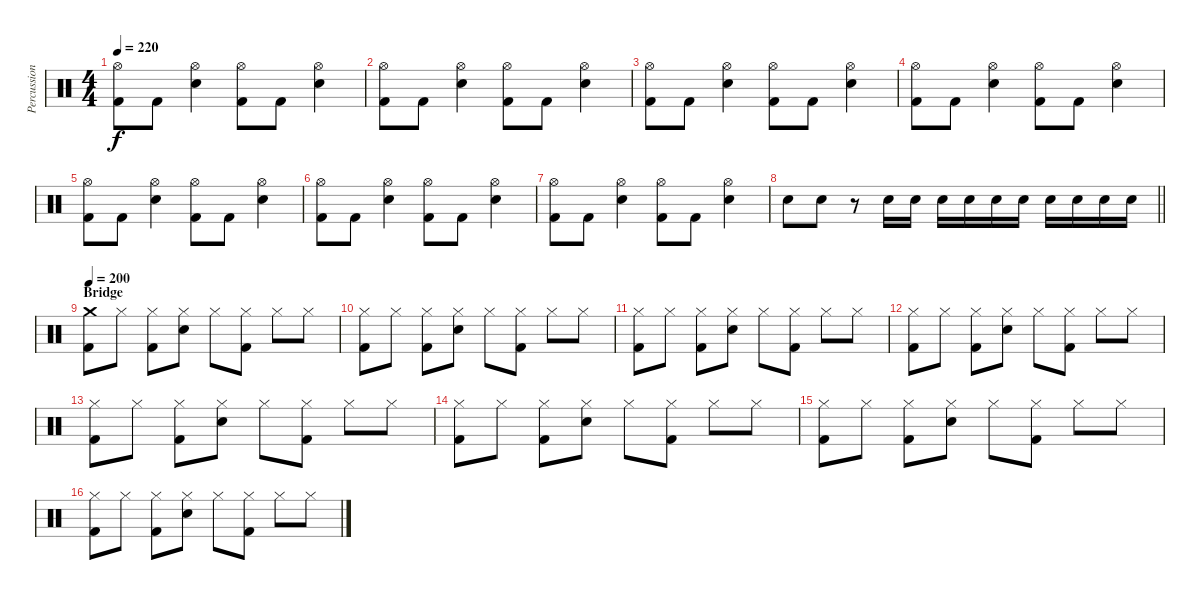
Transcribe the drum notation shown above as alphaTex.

\track ("Percussion" "Percussion") {instrument percussion}
\staff {score}
\articulation defaults
\ts (4 4)
\tempo 220
\clef neutral
\ks c
("Hi-Hat (open)" "Kick (hit) 2").8{dy f} "Kick (hit) 2".8 ("Hi-Hat (open)" "Snare (hit) 2").4 ("Hi-Hat (open)" "Kick (hit) 2").8 "Kick (hit) 2".8 ("Hi-Hat (open)" "Snare (hit) 2").4 |
("Hi-Hat (open)" "Kick (hit) 2").8 "Kick (hit) 2".8 ("Hi-Hat (open)" "Snare (hit) 2").4 ("Hi-Hat (open)" "Kick (hit) 2").8 "Kick (hit) 2".8 ("Hi-Hat (open)" "Snare (hit) 2").4 |
("Hi-Hat (open)" "Kick (hit) 2").8 "Kick (hit) 2".8 ("Hi-Hat (open)" "Snare (hit) 2").4 ("Hi-Hat (open)" "Kick (hit) 2").8 "Kick (hit) 2".8 ("Hi-Hat (open)" "Snare (hit) 2").4 |
("Hi-Hat (open)" "Kick (hit) 2").8 "Kick (hit) 2".8 ("Hi-Hat (open)" "Snare (hit) 2").4 ("Hi-Hat (open)" "Kick (hit) 2").8 "Kick (hit) 2".8 ("Hi-Hat (open)" "Snare (hit) 2").4 |
("Hi-Hat (open)" "Kick (hit) 2").8 "Kick (hit) 2".8 ("Hi-Hat (open)" "Snare (hit) 2").4 ("Hi-Hat (open)" "Kick (hit) 2").8 "Kick (hit) 2".8 ("Hi-Hat (open)" "Snare (hit) 2").4 |
("Hi-Hat (open)" "Kick (hit) 2").8 "Kick (hit) 2".8 ("Hi-Hat (open)" "Snare (hit) 2").4 ("Hi-Hat (open)" "Kick (hit) 2").8 "Kick (hit) 2".8 ("Hi-Hat (open)" "Snare (hit) 2").4 |
("Hi-Hat (open)" "Kick (hit) 2").8 "Kick (hit) 2".8 ("Hi-Hat (open)" "Snare (hit) 2").4 ("Hi-Hat (open)" "Kick (hit) 2").8 "Kick (hit) 2".8 ("Hi-Hat (open)" "Snare (hit) 2").4 |
\barLineRight lightlight "Snare (hit) 2".8 "Snare (hit) 2".8
r.8 "Snare (hit) 2".16 "Snare (hit) 2".16 "Snare (hit) 2".16 "Snare (hit) 2".16 "Snare (hit) 2".16 "Snare (hit) 2".16 "Snare (hit) 2".16 "Snare (hit) 2".16 "Snare (hit) 2".16 "Snare (hit) 2".16 |
\section ("" "Bridge")
\tempo 200
("Crash medium (hit)" "Kick (hit) 2").8 "Hi-Hat (closed)".8 ("Hi-Hat (closed)" "Kick (hit) 2").8 ("Hi-Hat (closed)" "Snare (hit) 2").8 "Hi-Hat (closed)".8 ("Hi-Hat (closed)" "Kick (hit) 2").8 "Hi-Hat (closed)".8 "Hi-Hat (closed)".8 |
("Hi-Hat (closed)" "Kick (hit) 2").8 "Hi-Hat (closed)".8 ("Hi-Hat (closed)" "Kick (hit) 2").8 ("Hi-Hat (closed)" "Snare (hit) 2").8 "Hi-Hat (closed)".8 ("Hi-Hat (closed)" "Kick (hit) 2").8 "Hi-Hat (closed)".8 "Hi-Hat (closed)".8 |
("Hi-Hat (closed)" "Kick (hit) 2").8 "Hi-Hat (closed)".8 ("Hi-Hat (closed)" "Kick (hit) 2").8 ("Hi-Hat (closed)" "Snare (hit) 2").8 "Hi-Hat (closed)".8 ("Hi-Hat (closed)" "Kick (hit) 2").8 "Hi-Hat (closed)".8 "Hi-Hat (closed)".8 |
("Hi-Hat (closed)" "Kick (hit) 2").8 "Hi-Hat (closed)".8 ("Hi-Hat (closed)" "Kick (hit) 2").8 ("Hi-Hat (closed)" "Snare (hit) 2").8 "Hi-Hat (closed)".8 ("Hi-Hat (closed)" "Kick (hit) 2").8 "Hi-Hat (closed)".8 "Hi-Hat (closed)".8 |
("Hi-Hat (closed)" "Kick (hit) 2").8 "Hi-Hat (closed)".8 ("Hi-Hat (closed)" "Kick (hit) 2").8 ("Hi-Hat (closed)" "Snare (hit) 2").8 "Hi-Hat (closed)".8 ("Hi-Hat (closed)" "Kick (hit) 2").8 "Hi-Hat (closed)".8 "Hi-Hat (closed)".8 |
("Hi-Hat (closed)" "Kick (hit) 2").8 "Hi-Hat (closed)".8 ("Hi-Hat (closed)" "Kick (hit) 2").8 ("Hi-Hat (closed)" "Snare (hit) 2").8 "Hi-Hat (closed)".8 ("Hi-Hat (closed)" "Kick (hit) 2").8 "Hi-Hat (closed)".8 "Hi-Hat (closed)".8 |
("Hi-Hat (closed)" "Kick (hit) 2").8 "Hi-Hat (closed)".8 ("Hi-Hat (closed)" "Kick (hit) 2").8 ("Hi-Hat (closed)" "Snare (hit) 2").8 "Hi-Hat (closed)".8 ("Hi-Hat (closed)" "Kick (hit) 2").8 "Hi-Hat (closed)".8 "Hi-Hat (closed)".8 |
("Hi-Hat (closed)" "Kick (hit) 2").8 "Hi-Hat (closed)".8 ("Hi-Hat (closed)" "Kick (hit) 2").8 ("Hi-Hat (closed)" "Snare (hit) 2").8 "Hi-Hat (closed)".8 ("Hi-Hat (closed)" "Kick (hit) 2").8 "Hi-Hat (closed)".8 "Hi-Hat (closed)".8
